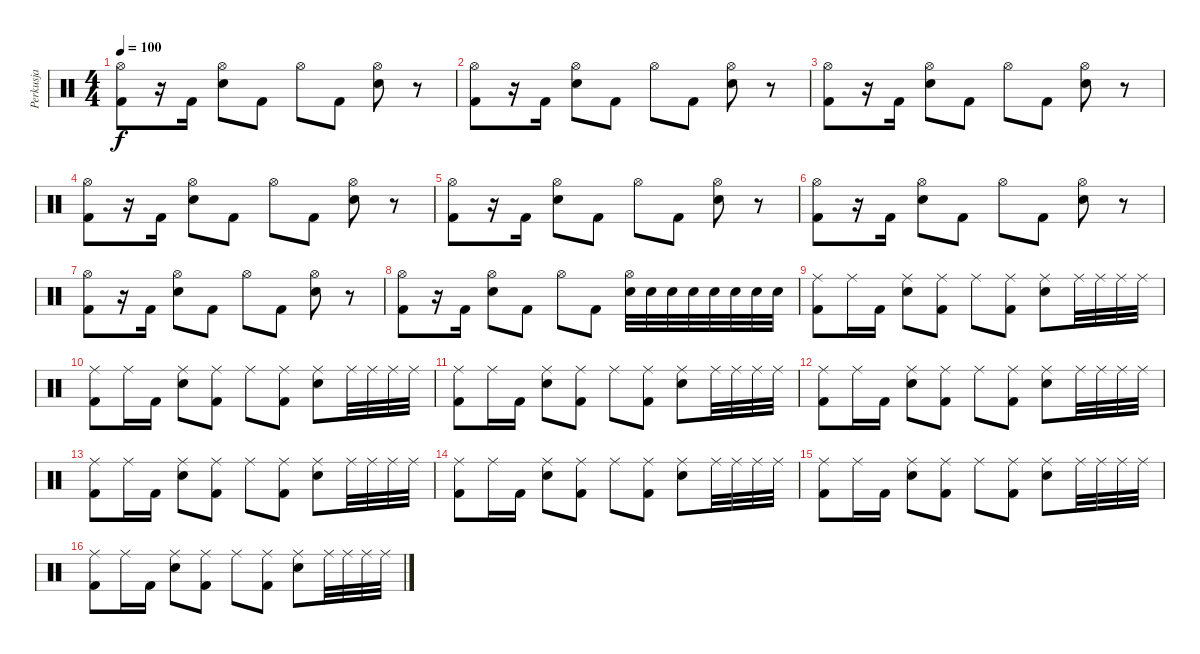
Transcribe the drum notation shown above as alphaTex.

\track ("Perkusja" "Perkusja") {instrument percussion}
\staff {score}
\articulation defaults
\ts (4 4)
\tempo 100
\clef neutral
\ks c
("Hi-Hat (open)" "Kick (hit) 2").8{dy f} r.16 "Kick (hit) 2".16 ("Hi-Hat (open)" "Electric Snare (hit)").8 "Kick (hit) 2".8 "Hi-Hat (open)".8 "Kick (hit) 2".8 ("Hi-Hat (open)" "Electric Snare (hit)").8 r.8 |
("Hi-Hat (open)" "Kick (hit) 2").8 r.16 "Kick (hit) 2".16 ("Hi-Hat (open)" "Electric Snare (hit)").8 "Kick (hit) 2".8 "Hi-Hat (open)".8 "Kick (hit) 2".8 ("Hi-Hat (open)" "Electric Snare (hit)").8 r.8 |
("Hi-Hat (open)" "Kick (hit) 2").8 r.16 "Kick (hit) 2".16 ("Hi-Hat (open)" "Electric Snare (hit)").8 "Kick (hit) 2".8 "Hi-Hat (open)".8 "Kick (hit) 2".8 ("Hi-Hat (open)" "Electric Snare (hit)").8 r.8 |
("Hi-Hat (open)" "Kick (hit) 2").8 r.16 "Kick (hit) 2".16 ("Hi-Hat (open)" "Electric Snare (hit)").8 "Kick (hit) 2".8 "Hi-Hat (open)".8 "Kick (hit) 2".8 ("Hi-Hat (open)" "Electric Snare (hit)").8 r.8 |
("Hi-Hat (open)" "Kick (hit) 2").8 r.16 "Kick (hit) 2".16 ("Hi-Hat (open)" "Electric Snare (hit)").8 "Kick (hit) 2".8 "Hi-Hat (open)".8 "Kick (hit) 2".8 ("Hi-Hat (open)" "Electric Snare (hit)").8 r.8 |
("Hi-Hat (open)" "Kick (hit) 2").8 r.16 "Kick (hit) 2".16 ("Hi-Hat (open)" "Electric Snare (hit)").8 "Kick (hit) 2".8 "Hi-Hat (open)".8 "Kick (hit) 2".8 ("Hi-Hat (open)" "Electric Snare (hit)").8 r.8 |
("Hi-Hat (open)" "Kick (hit) 2").8 r.16 "Kick (hit) 2".16 ("Hi-Hat (open)" "Electric Snare (hit)").8 "Kick (hit) 2".8 "Hi-Hat (open)".8 "Kick (hit) 2".8 ("Hi-Hat (open)" "Electric Snare (hit)").8 r.8 |
("Hi-Hat (open)" "Kick (hit) 2").8 r.16 "Kick (hit) 2".16 ("Hi-Hat (open)" "Electric Snare (hit)").8 "Kick (hit) 2".8 "Hi-Hat (open)".8 "Kick (hit) 2".8 ("Hi-Hat (open)" "Electric Snare (hit)").32 "Electric Snare (hit)".32 "Electric Snare (hit)".32 "Electric Snare (hit)".32 "Electric Snare (hit)".32 "Electric Snare (hit)".32 "Electric Snare (hit)".32 "Electric Snare (hit)".32 |
("Ride (middle)" "Kick (hit) 2").8 "Ride (middle)".16 "Kick (hit) 2".16 ("Ride (middle)" "Electric Snare (hit)").8 ("Ride (middle)" "Kick (hit) 2").8 "Ride (middle)".8 ("Ride (middle)" "Kick (hit) 2").8 ("Ride (middle)" "Electric Snare (hit)").8 "Ride (middle)".32 "Ride (middle)".32 "Ride (middle)".32 "Ride (middle)".32 |
("Ride (middle)" "Kick (hit) 2").8 "Ride (middle)".16 "Kick (hit) 2".16 ("Ride (middle)" "Electric Snare (hit)").8 ("Ride (middle)" "Kick (hit) 2").8 "Ride (middle)".8 ("Ride (middle)" "Kick (hit) 2").8 ("Ride (middle)" "Electric Snare (hit)").8 "Ride (middle)".32 "Ride (middle)".32 "Ride (middle)".32 "Ride (middle)".32 |
("Ride (middle)" "Kick (hit) 2").8 "Ride (middle)".16 "Kick (hit) 2".16 ("Ride (middle)" "Electric Snare (hit)").8 ("Ride (middle)" "Kick (hit) 2").8 "Ride (middle)".8 ("Ride (middle)" "Kick (hit) 2").8 ("Ride (middle)" "Electric Snare (hit)").8 "Ride (middle)".32 "Ride (middle)".32 "Ride (middle)".32 "Ride (middle)".32 |
("Ride (middle)" "Kick (hit) 2").8 "Ride (middle)".16 "Kick (hit) 2".16 ("Ride (middle)" "Electric Snare (hit)").8 ("Ride (middle)" "Kick (hit) 2").8 "Ride (middle)".8 ("Ride (middle)" "Kick (hit) 2").8 ("Ride (middle)" "Electric Snare (hit)").8 "Ride (middle)".32 "Ride (middle)".32 "Ride (middle)".32 "Ride (middle)".32 |
("Ride (middle)" "Kick (hit) 2").8 "Ride (middle)".16 "Kick (hit) 2".16 ("Ride (middle)" "Electric Snare (hit)").8 ("Ride (middle)" "Kick (hit) 2").8 "Ride (middle)".8 ("Ride (middle)" "Kick (hit) 2").8 ("Ride (middle)" "Electric Snare (hit)").8 "Ride (middle)".32 "Ride (middle)".32 "Ride (middle)".32 "Ride (middle)".32 |
("Ride (middle)" "Kick (hit) 2").8 "Ride (middle)".16 "Kick (hit) 2".16 ("Ride (middle)" "Electric Snare (hit)").8 ("Ride (middle)" "Kick (hit) 2").8 "Ride (middle)".8 ("Ride (middle)" "Kick (hit) 2").8 ("Ride (middle)" "Electric Snare (hit)").8 "Ride (middle)".32 "Ride (middle)".32 "Ride (middle)".32 "Ride (middle)".32 |
("Ride (middle)" "Kick (hit) 2").8 "Ride (middle)".16 "Kick (hit) 2".16 ("Ride (middle)" "Electric Snare (hit)").8 ("Ride (middle)" "Kick (hit) 2").8 "Ride (middle)".8 ("Ride (middle)" "Kick (hit) 2").8 ("Ride (middle)" "Electric Snare (hit)").8 "Ride (middle)".32 "Ride (middle)".32 "Ride (middle)".32 "Ride (middle)".32 |
("Ride (middle)" "Kick (hit) 2").8 "Ride (middle)".16 "Kick (hit) 2".16 ("Ride (middle)" "Electric Snare (hit)").8 ("Ride (middle)" "Kick (hit) 2").8 "Ride (middle)".8 ("Ride (middle)" "Kick (hit) 2").8 ("Ride (middle)" "Electric Snare (hit)").8 "Ride (middle)".32 "Ride (middle)".32 "Ride (middle)".32 "Ride (middle)".32
